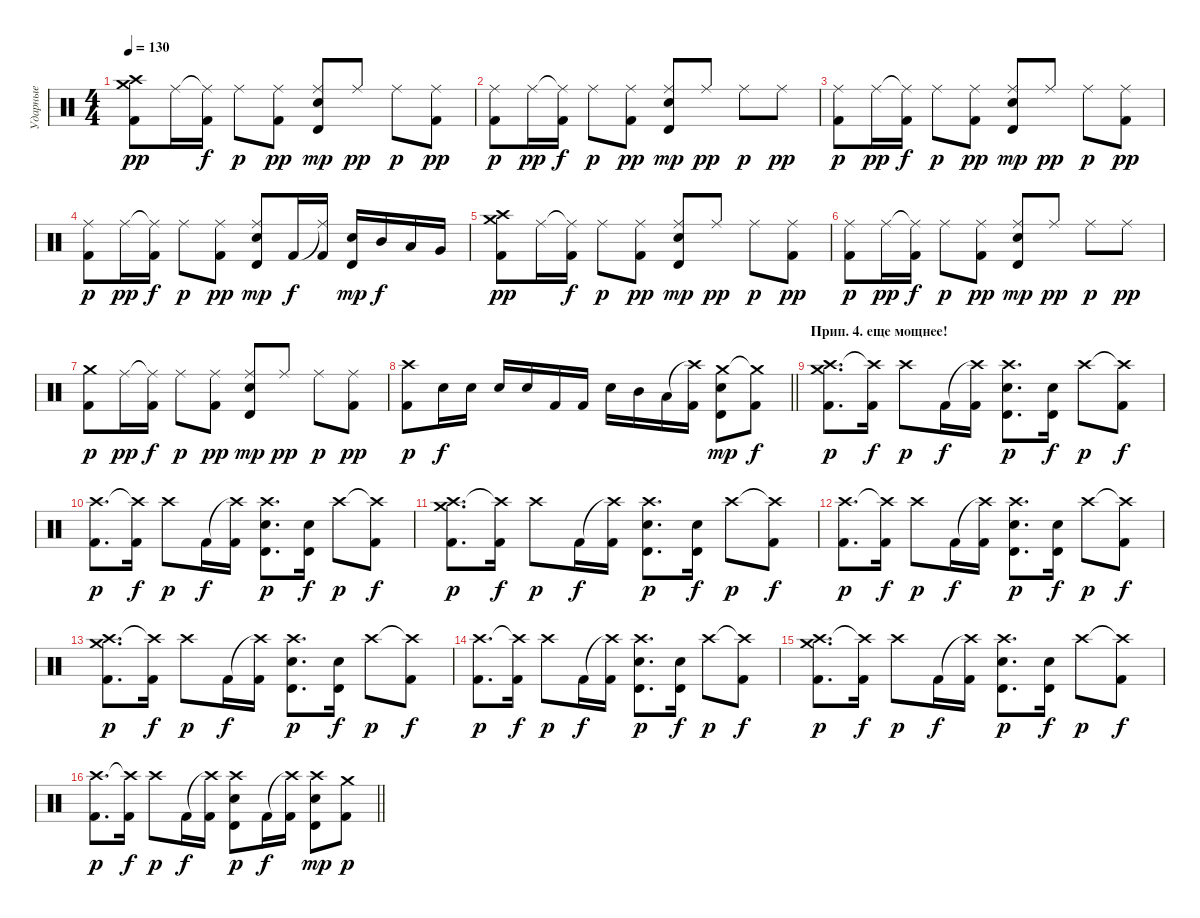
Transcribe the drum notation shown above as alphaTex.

\track ("Ударные" "Ударные") {instrument percussion}
\staff {score}
\articulation defaults
\ts (4 4)
\tempo 130
\clef neutral
\ks c
("Crash medium (hit)" "Crash high (hit)" "Kick (hit) 2").8{dy pp} "Ride (middle)".16 ("Ride (middle)"{t} "Kick (hit) 2").16{dy f} "Ride (middle)".8{dy p} ("Ride (middle)" "Kick (hit) 2").8{dy pp} ("Ride (middle)" "Snare (hit) 2" "Timbale high (hit)").8{dy mp} "Ride (middle)".8{dy pp} "Ride (middle)".8{dy p} ("Ride (middle)" "Kick (hit) 2").8{dy pp} |
("Ride (middle)" "Kick (hit) 2").8{dy p} "Ride (middle)".16{dy pp} ("Ride (middle)"{t} "Kick (hit) 2").16{dy f} "Ride (middle)".8{dy p} ("Ride (middle)" "Kick (hit) 2").8{dy pp} ("Ride (middle)" "Snare (hit) 2" "Timbale high (hit)").8{dy mp} "Ride (middle)".8{dy pp} "Ride (middle)".8{dy p} "Ride (middle)".8{dy pp} |
("Ride (middle)" "Kick (hit) 2").8{dy p} "Ride (middle)".16{dy pp} ("Ride (middle)"{t} "Kick (hit) 2").16{dy f} "Ride (middle)".8{dy p} ("Ride (middle)" "Kick (hit) 2").8{dy pp} ("Ride (middle)" "Snare (hit) 2" "Timbale high (hit)").8{dy mp} "Ride (middle)".8{dy pp} "Ride (middle)".8{dy p} ("Ride (middle)" "Kick (hit) 2").8{dy pp} |
("Ride (middle)" "Kick (hit) 2").8{dy p} "Ride (middle)".16{dy pp} ("Ride (middle)"{t} "Kick (hit) 2").16{dy f} "Ride (middle)".8{dy p} ("Ride (middle)" "Kick (hit) 2").8{dy pp} ("Ride (middle)" "Snare (hit) 2" "Timbale high (hit)").8{dy mp} "Kick (hit) 2".16{dy f} ("Ride (middle)"{t} "Kick (hit) 2").16 ("Snare (hit) 2" "Timbale high (hit)").16{dy mp} "Mid Tom (hit)".16{dy f} "Low Tom (hit)".16 "Very Low Tom (hit)".16 |
("Crash medium (hit)" "Crash high (hit)" "Kick (hit) 2").8{dy pp} "Ride (middle)".16 ("Ride (middle)"{t} "Kick (hit) 2").16{dy f} "Ride (middle)".8{dy p} ("Ride (middle)" "Kick (hit) 2").8{dy pp} ("Ride (middle)" "Snare (hit) 2" "Timbale high (hit)").8{dy mp} "Ride (middle)".8{dy pp} "Ride (middle)".8{dy p} ("Ride (middle)" "Kick (hit) 2").8{dy pp} |
("Ride (middle)" "Kick (hit) 2").8{dy p} "Ride (middle)".16{dy pp} ("Ride (middle)"{t} "Kick (hit) 2").16{dy f} "Ride (middle)".8{dy p} ("Ride (middle)" "Kick (hit) 2").8{dy pp} ("Ride (middle)" "Snare (hit) 2" "Timbale high (hit)").8{dy mp} "Ride (middle)".8{dy pp} "Ride (middle)".8{dy p} "Ride (middle)".8{dy pp} |
("Crash medium (hit)" "Kick (hit) 2").8{dy p} "Ride (middle)".16{dy pp} ("Ride (middle)"{t} "Kick (hit) 2").16{dy f} "Ride (middle)".8{dy p} ("Ride (middle)" "Kick (hit) 2").8{dy pp} ("Ride (middle)" "Snare (hit) 2" "Timbale high (hit)").8{dy mp} "Ride (middle)".8{dy pp} "Ride (middle)".8{dy p} ("Ride (middle)" "Kick (hit) 2").8{dy pp} |
\barLineRight lightlight
("Crash high (hit)" "Kick (hit) 2").8{dy p} "Snare (hit) 2".16{dy f} "Snare (hit) 2".16 "Snare (hit) 2".16 "Snare (hit) 2".16 "Kick (hit) 2".16 "Kick (hit) 2".16 "Snare (hit) 2".16 "Mid Tom (hit)".16 "Low Tom (hit)".16 ("Crash high (hit)"{t} "Kick (hit) 2").16 ("Crash medium (hit)" "Snare (hit) 2" "Timbale high (hit)").8{dy mp} ("Crash medium (hit)"{t} "Kick (hit) 2").8{dy f} |
\section ("" "Прип. 4. еще мощнее!")
("Crash high (hit)" "Crash medium (hit)" "Kick (hit) 2").8{d dy p} ("Crash high (hit)"{t} "Kick (hit) 2").16{dy f} "Crash high (hit)".8{dy p} "Kick (hit) 2".16{dy f} ("Crash high (hit)"{t} "Kick (hit) 2").16 ("Crash high (hit)" "Snare (hit) 2" "Timbale high (hit)").8{d dy p} ("Snare (hit) 2" "Timbale high (hit)").16{dy f} "Crash high (hit)".8{dy p} ("Crash high (hit)"{t} "Kick (hit) 2").8{dy f} |
("Crash high (hit)" "Kick (hit) 2").8{d dy p} ("Crash high (hit)"{t} "Kick (hit) 2").16{dy f} "Crash high (hit)".8{dy p} "Kick (hit) 2".16{dy f} ("Crash high (hit)"{t} "Kick (hit) 2").16 ("Crash high (hit)" "Snare (hit) 2" "Timbale high (hit)").8{d dy p} ("Snare (hit) 2" "Timbale high (hit)").16{dy f} "Crash high (hit)".8{dy p} ("Crash high (hit)"{t} "Kick (hit) 2").8{dy f} |
("Crash high (hit)" "Crash medium (hit)" "Kick (hit) 2").8{d dy p} ("Crash high (hit)"{t} "Kick (hit) 2").16{dy f} "Crash high (hit)".8{dy p} "Kick (hit) 2".16{dy f} ("Crash high (hit)"{t} "Kick (hit) 2").16 ("Crash high (hit)" "Snare (hit) 2" "Timbale high (hit)").8{d dy p} ("Snare (hit) 2" "Timbale high (hit)").16{dy f} "Crash high (hit)".8{dy p} ("Crash high (hit)"{t} "Kick (hit) 2").8{dy f} |
("Crash high (hit)" "Kick (hit) 2").8{d dy p} ("Crash high (hit)"{t} "Kick (hit) 2").16{dy f} "Crash high (hit)".8{dy p} "Kick (hit) 2".16{dy f} ("Crash high (hit)"{t} "Kick (hit) 2").16 ("Crash high (hit)" "Snare (hit) 2" "Timbale high (hit)").8{d dy p} ("Snare (hit) 2" "Timbale high (hit)").16{dy f} "Crash high (hit)".8{dy p} ("Crash high (hit)"{t} "Kick (hit) 2").8{dy f} |
("Crash high (hit)" "Crash medium (hit)" "Kick (hit) 2").8{d dy p} ("Crash high (hit)"{t} "Kick (hit) 2").16{dy f} "Crash high (hit)".8{dy p} "Kick (hit) 2".16{dy f} ("Crash high (hit)"{t} "Kick (hit) 2").16 ("Crash high (hit)" "Snare (hit) 2" "Timbale high (hit)").8{d dy p} ("Snare (hit) 2" "Timbale high (hit)").16{dy f} "Crash high (hit)".8{dy p} ("Crash high (hit)"{t} "Kick (hit) 2").8{dy f} |
("Crash high (hit)" "Kick (hit) 2").8{d dy p} ("Crash high (hit)"{t} "Kick (hit) 2").16{dy f} "Crash high (hit)".8{dy p} "Kick (hit) 2".16{dy f} ("Crash high (hit)"{t} "Kick (hit) 2").16 ("Crash high (hit)" "Snare (hit) 2" "Timbale high (hit)").8{d dy p} ("Snare (hit) 2" "Timbale high (hit)").16{dy f} "Crash high (hit)".8{dy p} ("Crash high (hit)"{t} "Kick (hit) 2").8{dy f} |
("Crash high (hit)" "Crash medium (hit)" "Kick (hit) 2").8{d dy p} ("Crash high (hit)"{t} "Kick (hit) 2").16{dy f} "Crash high (hit)".8{dy p} "Kick (hit) 2".16{dy f} ("Crash high (hit)"{t} "Kick (hit) 2").16 ("Crash high (hit)" "Snare (hit) 2" "Timbale high (hit)").8{d dy p} ("Snare (hit) 2" "Timbale high (hit)").16{dy f} "Crash high (hit)".8{dy p} ("Crash high (hit)"{t} "Kick (hit) 2").8{dy f} |
\barLineRight lightlight
("Crash high (hit)" "Kick (hit) 2").8{d dy p} ("Crash high (hit)"{t} "Kick (hit) 2").16{dy f} "Crash high (hit)".8{dy p} "Kick (hit) 2".16{dy f} ("Crash high (hit)"{t} "Kick (hit) 2").16 ("Crash high (hit)" "Snare (hit) 2" "Timbale high (hit)").8{dy p} "Kick (hit) 2".16{dy f} ("Crash high (hit)"{t} "Kick (hit) 2").16 ("Crash high (hit)" "Snare (hit) 2" "Timbale high (hit)").8{dy mp} ("Crash medium (hit)" "Kick (hit) 2").8{dy p}
